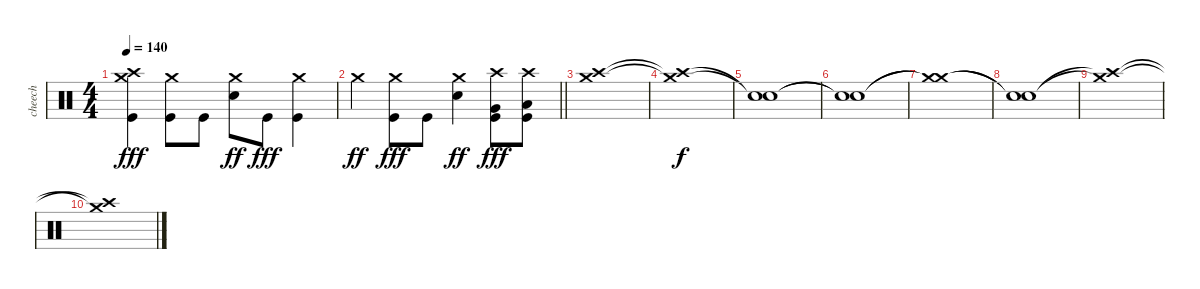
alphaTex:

\track ("cheech" "cheech") {solo instrument percussion}
\staff {score}
\articulation defaults
\ts (4 4)
\tempo 140
\clef neutral
\ks c
("Crash medium (hit)" "Crash high (hit)" "Kick (hit)").4{dy fff} ("Crash medium (hit)" "Kick (hit)").8 "Kick (hit)".8 ("Crash medium (hit)" "Electric Snare (hit)").8{dy ff} "Kick (hit)".8{dy fff} ("Crash medium (hit)" "Kick (hit)").4 |
\barLineRight lightlight "Crash medium (hit)".4{dy ff}
("Crash medium (hit)" "Kick (hit)").8{dy fff} "Kick (hit)".8 ("Crash medium (hit)" "Electric Snare (hit)").4{dy ff} ("Crash high (hit)" "Very Low Tom (hit)" "Kick (hit)").8{dy fff} ("Crash high (hit)" "Low Floor Tom (hit)" "Kick (hit)").8 |
("Crash medium (hit)" "Crash high (hit)").1 |
("Crash medium (hit)"{t} "Crash high (hit)"{t}).1{dy f} |
("Snare (hit)"{t} "Snare (hit)"{t}).1 |
("Snare (hit)"{t} "Snare (hit)"{t}).1 |
("Crash medium (hit)"{t} "Crash medium (hit)"{t}).1 |
("Snare (hit)"{t} "Snare (hit)"{t}).1 |
("Crash medium (hit)"{t} "Crash high (hit)"{t}).1 |
("Crash high (hit)"{t} "Crash medium (hit)"{t}).1
